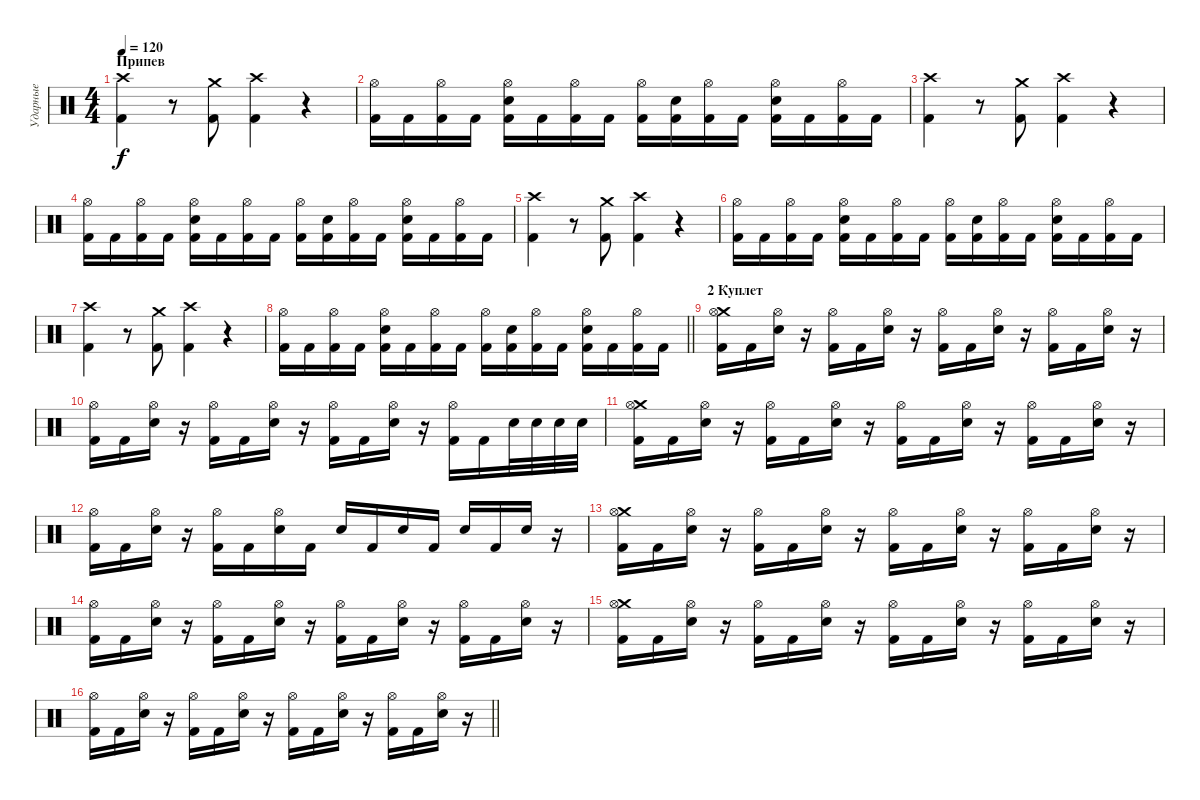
\track ("Ударные" "Ударные") {instrument percussion}
\staff {score}
\articulation defaults
\ts (4 4)
\section ("" "Припев")
\tempo 120
\clef neutral
\ks c
("Crash high (hit)" "Kick (hit) 2").4{dy f} r.8 ("Crash medium (hit)" "Kick (hit) 2").8 ("Crash high (hit)" "Kick (hit) 2").4 r.4 |
("Hi-Hat (open)" "Kick (hit) 2").16 "Kick (hit) 2".16 ("Hi-Hat (open)" "Kick (hit) 2").16 "Kick (hit) 2".16 ("Hi-Hat (open)" "Kick (hit) 2" "Electric Snare (hit)").16 "Kick (hit) 2".16 ("Hi-Hat (open)" "Kick (hit) 2").16 "Kick (hit) 2".16 ("Hi-Hat (open)" "Kick (hit) 2").16 ("Kick (hit) 2" "Electric Snare (hit)").16 ("Hi-Hat (open)" "Kick (hit) 2").16 "Kick (hit) 2".16 ("Hi-Hat (open)" "Kick (hit) 2" "Electric Snare (hit)").16 "Kick (hit) 2".16 ("Hi-Hat (open)" "Kick (hit) 2").16 "Kick (hit) 2".16 |
("Crash high (hit)" "Kick (hit) 2").4 r.8 ("Crash medium (hit)" "Kick (hit) 2").8 ("Crash high (hit)" "Kick (hit) 2").4 r.4 |
("Hi-Hat (open)" "Kick (hit) 2").16 "Kick (hit) 2".16 ("Hi-Hat (open)" "Kick (hit) 2").16 "Kick (hit) 2".16 ("Hi-Hat (open)" "Kick (hit) 2" "Electric Snare (hit)").16 "Kick (hit) 2".16 ("Hi-Hat (open)" "Kick (hit) 2").16 "Kick (hit) 2".16 ("Hi-Hat (open)" "Kick (hit) 2").16 ("Kick (hit) 2" "Electric Snare (hit)").16 ("Hi-Hat (open)" "Kick (hit) 2").16 "Kick (hit) 2".16 ("Hi-Hat (open)" "Kick (hit) 2" "Electric Snare (hit)").16 "Kick (hit) 2".16 ("Hi-Hat (open)" "Kick (hit) 2").16 "Kick (hit) 2".16 |
("Crash high (hit)" "Kick (hit) 2").4 r.8 ("Crash medium (hit)" "Kick (hit) 2").8 ("Crash high (hit)" "Kick (hit) 2").4 r.4 |
("Hi-Hat (open)" "Kick (hit) 2").16 "Kick (hit) 2".16 ("Hi-Hat (open)" "Kick (hit) 2").16 "Kick (hit) 2".16 ("Hi-Hat (open)" "Kick (hit) 2" "Electric Snare (hit)").16 "Kick (hit) 2".16 ("Hi-Hat (open)" "Kick (hit) 2").16 "Kick (hit) 2".16 ("Hi-Hat (open)" "Kick (hit) 2").16 ("Kick (hit) 2" "Electric Snare (hit)").16 ("Hi-Hat (open)" "Kick (hit) 2").16 "Kick (hit) 2".16 ("Hi-Hat (open)" "Kick (hit) 2" "Electric Snare (hit)").16 "Kick (hit) 2".16 ("Hi-Hat (open)" "Kick (hit) 2").16 "Kick (hit) 2".16 |
("Crash high (hit)" "Kick (hit) 2").4 r.8 ("Crash medium (hit)" "Kick (hit) 2").8 ("Crash high (hit)" "Kick (hit) 2").4 r.4 |
\barLineRight lightlight
("Hi-Hat (open)" "Kick (hit) 2").16 "Kick (hit) 2".16 ("Hi-Hat (open)" "Kick (hit) 2").16 "Kick (hit) 2".16 ("Hi-Hat (open)" "Kick (hit) 2" "Electric Snare (hit)").16 "Kick (hit) 2".16 ("Hi-Hat (open)" "Kick (hit) 2").16 "Kick (hit) 2".16 ("Hi-Hat (open)" "Kick (hit) 2").16 ("Kick (hit) 2" "Electric Snare (hit)").16 ("Hi-Hat (open)" "Kick (hit) 2").16 "Kick (hit) 2".16 ("Hi-Hat (open)" "Kick (hit) 2" "Electric Snare (hit)").16 "Kick (hit) 2".16 ("Hi-Hat (open)" "Kick (hit) 2").16 "Kick (hit) 2".16 |
\section ("" "2 Куплет")
("Crash medium (hit)" "Hi-Hat (open)" "Kick (hit) 2").16 "Kick (hit) 2".16 ("Hi-Hat (open)" "Electric Snare (hit)").16 r.16 ("Hi-Hat (open)" "Kick (hit) 2").16 "Kick (hit) 2".16 ("Hi-Hat (open)" "Electric Snare (hit)").16 r.16 ("Hi-Hat (open)" "Kick (hit) 2").16 "Kick (hit) 2".16 ("Hi-Hat (open)" "Electric Snare (hit)").16 r.16 ("Hi-Hat (open)" "Kick (hit) 2").16 "Kick (hit) 2".16 ("Hi-Hat (open)" "Electric Snare (hit)").16 r.16 |
("Hi-Hat (open)" "Kick (hit) 2").16 "Kick (hit) 2".16 ("Hi-Hat (open)" "Electric Snare (hit)").16 r.16 ("Hi-Hat (open)" "Kick (hit) 2").16 "Kick (hit) 2".16 ("Hi-Hat (open)" "Electric Snare (hit)").16 r.16 ("Hi-Hat (open)" "Kick (hit) 2").16 "Kick (hit) 2".16 ("Hi-Hat (open)" "Electric Snare (hit)").16 r.16 ("Hi-Hat (open)" "Kick (hit) 2").16 "Kick (hit) 2".16 "Electric Snare (hit)".32 "Electric Snare (hit)".32 "Electric Snare (hit)".32 "Electric Snare (hit)".32 |
("Crash medium (hit)" "Hi-Hat (open)" "Kick (hit) 2").16 "Kick (hit) 2".16 ("Hi-Hat (open)" "Electric Snare (hit)").16 r.16 ("Hi-Hat (open)" "Kick (hit) 2").16 "Kick (hit) 2".16 ("Hi-Hat (open)" "Electric Snare (hit)").16 r.16 ("Hi-Hat (open)" "Kick (hit) 2").16 "Kick (hit) 2".16 ("Hi-Hat (open)" "Electric Snare (hit)").16 r.16 ("Hi-Hat (open)" "Kick (hit) 2").16 "Kick (hit) 2".16 ("Hi-Hat (open)" "Electric Snare (hit)").16 r.16 |
("Hi-Hat (open)" "Kick (hit) 2").16 "Kick (hit) 2".16 ("Hi-Hat (open)" "Electric Snare (hit)").16 r.16 ("Hi-Hat (open)" "Kick (hit) 2").16 "Kick (hit) 2".16 ("Hi-Hat (open)" "Electric Snare (hit)").16 "Kick (hit) 2".16 "Electric Snare (hit)".16 "Kick (hit) 2".16 "Electric Snare (hit)".16 "Kick (hit) 2".16 "Electric Snare (hit)".16 "Kick (hit) 2".16 "Electric Snare (hit)".16 r.16 |
("Crash medium (hit)" "Hi-Hat (open)" "Kick (hit) 2").16 "Kick (hit) 2".16 ("Hi-Hat (open)" "Electric Snare (hit)").16 r.16 ("Hi-Hat (open)" "Kick (hit) 2").16 "Kick (hit) 2".16 ("Hi-Hat (open)" "Electric Snare (hit)").16 r.16 ("Hi-Hat (open)" "Kick (hit) 2").16 "Kick (hit) 2".16 ("Hi-Hat (open)" "Electric Snare (hit)").16 r.16 ("Hi-Hat (open)" "Kick (hit) 2").16 "Kick (hit) 2".16 ("Hi-Hat (open)" "Electric Snare (hit)").16 r.16 |
("Hi-Hat (open)" "Kick (hit) 2").16 "Kick (hit) 2".16 ("Hi-Hat (open)" "Electric Snare (hit)").16 r.16 ("Hi-Hat (open)" "Kick (hit) 2").16 "Kick (hit) 2".16 ("Hi-Hat (open)" "Electric Snare (hit)").16 r.16 ("Hi-Hat (open)" "Kick (hit) 2").16 "Kick (hit) 2".16 ("Hi-Hat (open)" "Electric Snare (hit)").16 r.16 ("Hi-Hat (open)" "Kick (hit) 2").16 "Kick (hit) 2".16 ("Hi-Hat (open)" "Electric Snare (hit)").16 r.16 |
("Crash medium (hit)" "Hi-Hat (open)" "Kick (hit) 2").16 "Kick (hit) 2".16 ("Hi-Hat (open)" "Electric Snare (hit)").16 r.16 ("Hi-Hat (open)" "Kick (hit) 2").16 "Kick (hit) 2".16 ("Hi-Hat (open)" "Electric Snare (hit)").16 r.16 ("Hi-Hat (open)" "Kick (hit) 2").16 "Kick (hit) 2".16 ("Hi-Hat (open)" "Electric Snare (hit)").16 r.16 ("Hi-Hat (open)" "Kick (hit) 2").16 "Kick (hit) 2".16 ("Hi-Hat (open)" "Electric Snare (hit)").16 r.16 |
\barLineRight lightlight
("Hi-Hat (open)" "Kick (hit) 2").16 "Kick (hit) 2".16 ("Hi-Hat (open)" "Electric Snare (hit)").16 r.16 ("Hi-Hat (open)" "Kick (hit) 2").16 "Kick (hit) 2".16 ("Hi-Hat (open)" "Electric Snare (hit)").16 r.16 ("Hi-Hat (open)" "Kick (hit) 2").16 "Kick (hit) 2".16 ("Hi-Hat (open)" "Electric Snare (hit)").16 r.16 ("Hi-Hat (open)" "Kick (hit) 2").16 "Kick (hit) 2".16 ("Hi-Hat (open)" "Electric Snare (hit)").16 r.16
